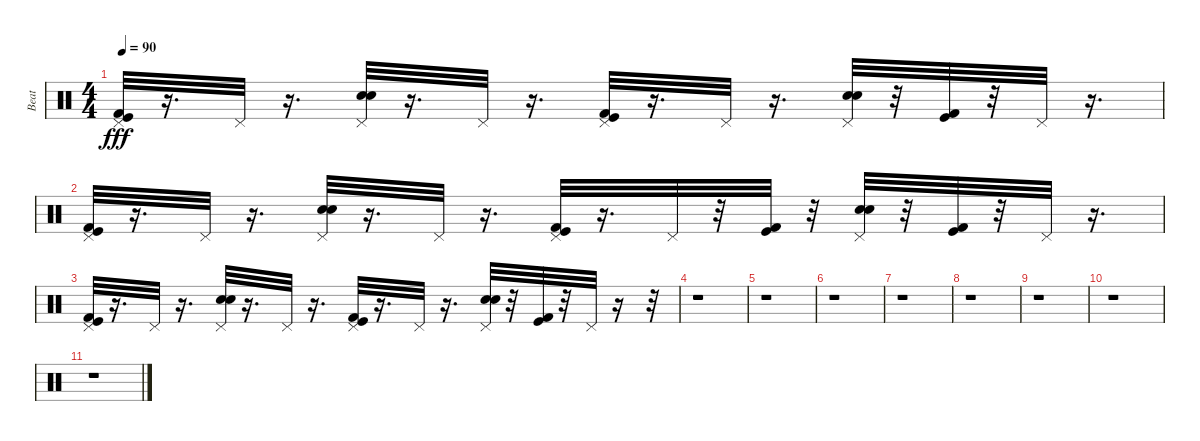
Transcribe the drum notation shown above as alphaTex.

\track ("Beat" "Beat") {instrument percussion}
\staff {score}
\articulation defaults
\ts (4 4)
\tempo 90
\clef neutral
\ks c
("Kick (hit) 2" "Kick (hit)" "Pedal Hi-Hat (hit)").32{dy fff} r.16{d} "Pedal Hi-Hat (hit)".32 r.16{d} ("Electric Snare (hit)" "Snare (hit) 2" "Pedal Hi-Hat (hit)").32 r.16{d} "Pedal Hi-Hat (hit)".32 r.16{d} ("Kick (hit) 2" "Kick (hit)" "Pedal Hi-Hat (hit)").32 r.16{d} "Pedal Hi-Hat (hit)".32 r.16{d} ("Electric Snare (hit)" "Snare (hit) 2" "Pedal Hi-Hat (hit)").32 r.32 ("Kick (hit) 2" "Kick (hit)").32 r.32 "Pedal Hi-Hat (hit)".32 r.16{d} |
("Kick (hit) 2" "Kick (hit)" "Pedal Hi-Hat (hit)").32 r.16{d} "Pedal Hi-Hat (hit)".32 r.16{d} ("Electric Snare (hit)" "Snare (hit) 2" "Pedal Hi-Hat (hit)").32 r.16{d} "Pedal Hi-Hat (hit)".32 r.16{d} ("Kick (hit) 2" "Kick (hit)" "Pedal Hi-Hat (hit)").32 r.16{d} "Pedal Hi-Hat (hit)".32 r.32 ("Kick (hit) 2" "Kick (hit)").32 r.32 ("Electric Snare (hit)" "Snare (hit) 2" "Pedal Hi-Hat (hit)").32 r.32 ("Kick (hit) 2" "Kick (hit)").32 r.32 "Pedal Hi-Hat (hit)".32 r.16{d} |
("Kick (hit) 2" "Kick (hit)" "Pedal Hi-Hat (hit)").32 r.16{d} "Pedal Hi-Hat (hit)".32 r.16{d} ("Electric Snare (hit)" "Snare (hit) 2" "Pedal Hi-Hat (hit)").32 r.16{d} "Pedal Hi-Hat (hit)".32 r.16{d} ("Kick (hit) 2" "Kick (hit)" "Pedal Hi-Hat (hit)").32 r.16{d} "Pedal Hi-Hat (hit)".32 r.16{d} ("Electric Snare (hit)" "Snare (hit) 2" "Pedal Hi-Hat (hit)").32 r.32 ("Kick (hit) 2" "Kick (hit)").32 r.32 "Pedal Hi-Hat (hit)".32 r.16 r.32 |
r.1 |
r.1 |
r.1 |
r.1 |
r.1 |
r.1 |
r.1 |
r.1
